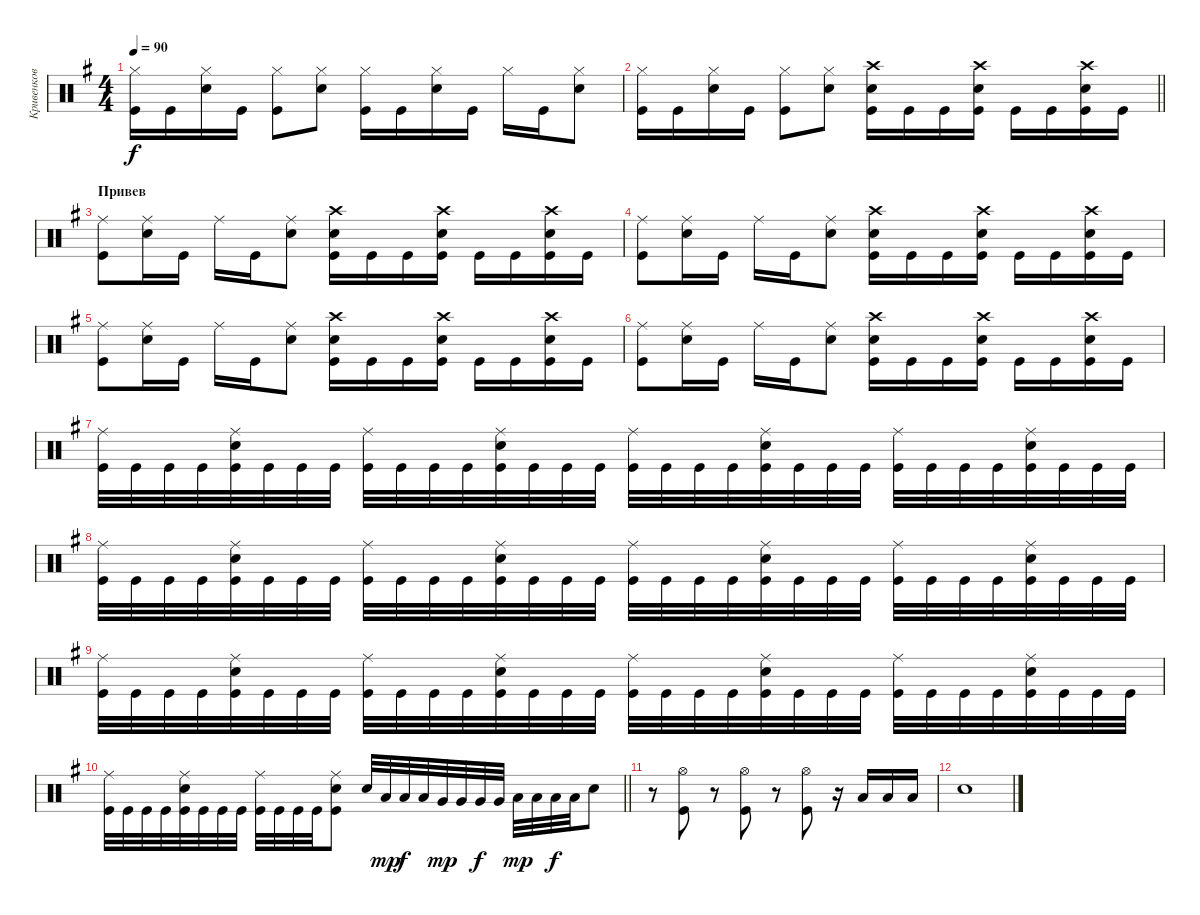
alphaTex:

\track ("Кривенков" "Кривенков") {instrument percussion}
\staff {score}
\articulation defaults
\ts (4 4)
\tempo 90
\clef neutral
\ks eminor
("Kick (hit)" "Hi-Hat (closed)").16{dy f} "Kick (hit)".16 ("Snare (hit) 2" "Hi-Hat (closed)").16 "Kick (hit)".16 ("Kick (hit)" "Hi-Hat (closed)").8 ("Snare (hit) 2" "Hi-Hat (closed)").8 ("Kick (hit)" "Hi-Hat (closed)").16 "Kick (hit)".16 ("Snare (hit) 2" "Hi-Hat (closed)").16 "Kick (hit)".16 "Hi-Hat (closed)".16 "Kick (hit)".16 ("Snare (hit) 2" "Hi-Hat (closed)").8 |
\barLineRight lightlight
("Kick (hit)" "Hi-Hat (closed)").16 "Kick (hit)".16 ("Snare (hit) 2" "Hi-Hat (closed)").16 "Kick (hit)".16 ("Kick (hit)" "Hi-Hat (closed)").8 ("Snare (hit) 2" "Hi-Hat (closed)").8 ("Snare (hit) 2" "Crash high (hit)" "Kick (hit)").16 "Kick (hit)".16 "Kick (hit)".16 ("Snare (hit) 2" "Crash high (hit)" "Kick (hit)").16 "Kick (hit)".16 "Kick (hit)".16 ("Snare (hit) 2" "Crash high (hit)" "Kick (hit)").16 "Kick (hit)".16 |
\section ("" "Привев")
("Kick (hit)" "Ride (middle)").8 ("Snare (hit) 2" "Ride (middle)").16 "Kick (hit)".16 "Ride (middle)".16 "Kick (hit)".16 ("Snare (hit) 2" "Ride (middle)").8 ("Snare (hit) 2" "Crash high (hit)" "Kick (hit)").16 "Kick (hit)".16 "Kick (hit)".16 ("Snare (hit) 2" "Crash high (hit)" "Kick (hit)").16 "Kick (hit)".16 "Kick (hit)".16 ("Snare (hit) 2" "Crash high (hit)" "Kick (hit)").16 "Kick (hit)".16 |
("Kick (hit)" "Ride (middle)").8 ("Snare (hit) 2" "Ride (middle)").16 "Kick (hit)".16 "Ride (middle)".16 "Kick (hit)".16 ("Snare (hit) 2" "Ride (middle)").8 ("Snare (hit) 2" "Crash high (hit)" "Kick (hit)").16 "Kick (hit)".16 "Kick (hit)".16 ("Snare (hit) 2" "Crash high (hit)" "Kick (hit)").16 "Kick (hit)".16 "Kick (hit)".16 ("Snare (hit) 2" "Crash high (hit)" "Kick (hit)").16 "Kick (hit)".16 |
("Kick (hit)" "Ride (middle)").8 ("Snare (hit) 2" "Ride (middle)").16 "Kick (hit)".16 "Ride (middle)".16 "Kick (hit)".16 ("Snare (hit) 2" "Ride (middle)").8 ("Snare (hit) 2" "Crash high (hit)" "Kick (hit)").16 "Kick (hit)".16 "Kick (hit)".16 ("Snare (hit) 2" "Crash high (hit)" "Kick (hit)").16 "Kick (hit)".16 "Kick (hit)".16 ("Snare (hit) 2" "Crash high (hit)" "Kick (hit)").16 "Kick (hit)".16 |
("Kick (hit)" "Ride (middle)").8 ("Snare (hit) 2" "Ride (middle)").16 "Kick (hit)".16 "Ride (middle)".16 "Kick (hit)".16 ("Snare (hit) 2" "Ride (middle)").8 ("Snare (hit) 2" "Crash high (hit)" "Kick (hit)").16 "Kick (hit)".16 "Kick (hit)".16 ("Snare (hit) 2" "Crash high (hit)" "Kick (hit)").16 "Kick (hit)".16 "Kick (hit)".16 ("Snare (hit) 2" "Crash high (hit)" "Kick (hit)").16 "Kick (hit)".16 |
("Kick (hit)" "Ride (middle)").32 "Kick (hit)".32 "Kick (hit)".32 "Kick (hit)".32 ("Kick (hit)" "Snare (hit) 2" "Ride (middle)").32 "Kick (hit)".32 "Kick (hit)".32 "Kick (hit)".32 ("Kick (hit)" "Ride (middle)").32 "Kick (hit)".32 "Kick (hit)".32 "Kick (hit)".32 ("Kick (hit)" "Snare (hit) 2" "Ride (middle)").32 "Kick (hit)".32 "Kick (hit)".32 "Kick (hit)".32 ("Kick (hit)" "Ride (middle)").32 "Kick (hit)".32 "Kick (hit)".32 "Kick (hit)".32 ("Kick (hit)" "Snare (hit) 2" "Ride (middle)").32 "Kick (hit)".32 "Kick (hit)".32 "Kick (hit)".32 ("Kick (hit)" "Ride (middle)").32 "Kick (hit)".32 "Kick (hit)".32 "Kick (hit)".32 ("Kick (hit)" "Snare (hit) 2" "Ride (middle)").32 "Kick (hit)".32 "Kick (hit)".32 "Kick (hit)".32 |
("Kick (hit)" "Ride (middle)").32 "Kick (hit)".32 "Kick (hit)".32 "Kick (hit)".32 ("Kick (hit)" "Snare (hit) 2" "Ride (middle)").32 "Kick (hit)".32 "Kick (hit)".32 "Kick (hit)".32 ("Kick (hit)" "Ride (middle)").32 "Kick (hit)".32 "Kick (hit)".32 "Kick (hit)".32 ("Kick (hit)" "Snare (hit) 2" "Ride (middle)").32 "Kick (hit)".32 "Kick (hit)".32 "Kick (hit)".32 ("Kick (hit)" "Ride (middle)").32 "Kick (hit)".32 "Kick (hit)".32 "Kick (hit)".32 ("Kick (hit)" "Snare (hit) 2" "Ride (middle)").32 "Kick (hit)".32 "Kick (hit)".32 "Kick (hit)".32 ("Kick (hit)" "Ride (middle)").32 "Kick (hit)".32 "Kick (hit)".32 "Kick (hit)".32 ("Kick (hit)" "Snare (hit) 2" "Ride (middle)").32 "Kick (hit)".32 "Kick (hit)".32 "Kick (hit)".32 |
("Kick (hit)" "Ride (middle)").32 "Kick (hit)".32 "Kick (hit)".32 "Kick (hit)".32 ("Kick (hit)" "Snare (hit) 2" "Ride (middle)").32 "Kick (hit)".32 "Kick (hit)".32 "Kick (hit)".32 ("Kick (hit)" "Ride (middle)").32 "Kick (hit)".32 "Kick (hit)".32 "Kick (hit)".32 ("Kick (hit)" "Snare (hit) 2" "Ride (middle)").32 "Kick (hit)".32 "Kick (hit)".32 "Kick (hit)".32 ("Kick (hit)" "Ride (middle)").32 "Kick (hit)".32 "Kick (hit)".32 "Kick (hit)".32 ("Kick (hit)" "Snare (hit) 2" "Ride (middle)").32 "Kick (hit)".32 "Kick (hit)".32 "Kick (hit)".32 ("Kick (hit)" "Ride (middle)").32 "Kick (hit)".32 "Kick (hit)".32 "Kick (hit)".32 ("Kick (hit)" "Snare (hit) 2" "Ride (middle)").32 "Kick (hit)".32 "Kick (hit)".32 "Kick (hit)".32 |
\barLineRight lightlight
("Kick (hit)" "Ride (middle)").32 "Kick (hit)".32 "Kick (hit)".32 "Kick (hit)".32 ("Kick (hit)" "Snare (hit) 2" "Ride (middle)").32 "Kick (hit)".32 "Kick (hit)".32 "Kick (hit)".32 ("Kick (hit)" "Ride (middle)").32 "Kick (hit)".32 "Kick (hit)".32 "Kick (hit)".32 ("Kick (hit)" "Snare (hit) 2" "Ride (middle)").8 "Snare (hit) 2".32 "Low Tom (hit)".32{dy mp} "Low Tom (hit)".32{dy f} "Low Tom (hit)".32 "Very Low Tom (hit)".32{dy mp} "Very Low Tom (hit)".32 "Very Low Tom (hit)".32{dy f} "Very Low Tom (hit)".32 "Low Floor Tom (hit)".32{dy mp} "Low Floor Tom (hit)".32 "Low Floor Tom (hit)".32{dy f} "Low Floor Tom (hit)".32 "Snare (hit) 2".8 |
r.8 ("Kick (hit)" "Hi-Hat (open)").8 r.8 ("Kick (hit)" "Hi-Hat (open)").8 r.8 ("Kick (hit)" "Hi-Hat (open)").8 r.16 "Low Tom (hit)".16 "Low Tom (hit)".16 "Low Tom (hit)".16 |
"Snare (hit) 2".1
